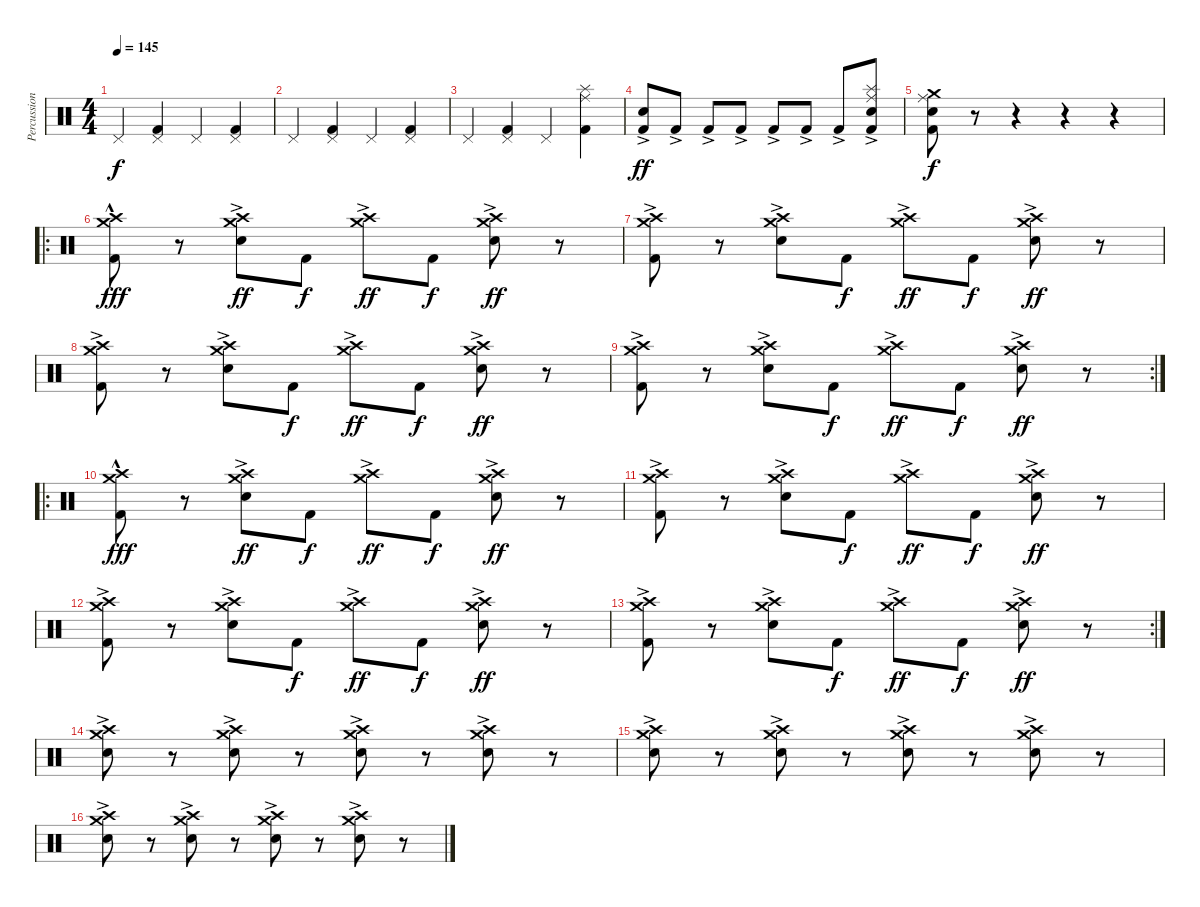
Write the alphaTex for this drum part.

\track ("Percussion" "Percussion") {instrument percussion}
\staff {score}
\articulation defaults
\ts (4 4)
\tempo 145
\clef neutral
\ks c "Pedal Hi-Hat (hit)".4{dy f}
("Pedal Hi-Hat (hit)" "Kick (hit) 2").4 "Pedal Hi-Hat (hit)".4 ("Pedal Hi-Hat (hit)" "Kick (hit) 2").4 |
"Pedal Hi-Hat (hit)".4 ("Pedal Hi-Hat (hit)" "Kick (hit) 2").4 "Pedal Hi-Hat (hit)".4 ("Pedal Hi-Hat (hit)" "Kick (hit) 2").4 |
"Pedal Hi-Hat (hit)".4 ("Pedal Hi-Hat (hit)" "Kick (hit) 2").4 "Pedal Hi-Hat (hit)".4 ("Ride (middle)" "Splash (hit)" "Kick (hit) 2").4 |
("Electric Snare (hit)"{ac} "Kick (hit) 2"{ac}).8{dy ff} "Kick (hit) 2"{ac}.8 "Kick (hit) 2"{ac}.8 "Kick (hit) 2"{ac}.8 "Kick (hit) 2"{ac}.8 "Kick (hit) 2"{ac}.8 "Kick (hit) 2"{ac}.8 ("Ride (middle)" "Splash (hit)" "Electric Snare (hit)"{ac} "Kick (hit) 2"{ac}).8 |
("Ride (middle)" "Crash medium (hit)" "Electric Snare (hit)" "Kick (hit) 2").8{dy f} r.8 r.4 r.4 r.4 |
\ro
("Crash high (hit)"{hac} "Crash medium (hit)"{hac} "Kick (hit) 2"{hac}).8{dy fff} r.8 ("Crash high (hit)"{ac} "Crash medium (hit)"{ac} "Electric Snare (hit)").8{dy ff} "Kick (hit) 2".8{dy f} ("Crash high (hit)"{ac} "Crash medium (hit)"{ac}).8{dy ff} "Kick (hit) 2".8{dy f} ("Crash high (hit)"{ac} "Crash medium (hit)"{ac} "Electric Snare (hit)").8{dy ff} r.8 |
("Crash high (hit)"{ac} "Crash medium (hit)"{ac} "Kick (hit) 2").8 r.8 ("Crash high (hit)"{ac} "Crash medium (hit)"{ac} "Electric Snare (hit)").8 "Kick (hit) 2".8{dy f} ("Crash high (hit)"{ac} "Crash medium (hit)"{ac}).8{dy ff} "Kick (hit) 2".8{dy f} ("Crash high (hit)"{ac} "Crash medium (hit)"{ac} "Electric Snare (hit)").8{dy ff} r.8 |
("Crash high (hit)"{ac} "Crash medium (hit)"{ac} "Kick (hit) 2").8 r.8 ("Crash high (hit)"{ac} "Crash medium (hit)"{ac} "Electric Snare (hit)").8 "Kick (hit) 2".8{dy f} ("Crash high (hit)"{ac} "Crash medium (hit)"{ac}).8{dy ff} "Kick (hit) 2".8{dy f} ("Crash high (hit)"{ac} "Crash medium (hit)"{ac} "Electric Snare (hit)").8{dy ff} r.8 |
\rc 2
("Crash high (hit)"{ac} "Crash medium (hit)"{ac} "Kick (hit) 2").8 r.8 ("Crash high (hit)"{ac} "Crash medium (hit)"{ac} "Electric Snare (hit)").8 "Kick (hit) 2".8{dy f} ("Crash high (hit)"{ac} "Crash medium (hit)"{ac}).8{dy ff} "Kick (hit) 2".8{dy f} ("Crash high (hit)"{ac} "Crash medium (hit)"{ac} "Electric Snare (hit)").8{dy ff} r.8 |
\ro
("Crash high (hit)"{hac} "Crash medium (hit)"{hac} "Kick (hit) 2"{hac}).8{dy fff} r.8 ("Crash high (hit)"{ac} "Crash medium (hit)"{ac} "Electric Snare (hit)").8{dy ff} "Kick (hit) 2".8{dy f} ("Crash high (hit)"{ac} "Crash medium (hit)"{ac}).8{dy ff} "Kick (hit) 2".8{dy f} ("Crash high (hit)"{ac} "Crash medium (hit)"{ac} "Electric Snare (hit)").8{dy ff} r.8 |
("Crash high (hit)"{ac} "Crash medium (hit)"{ac} "Kick (hit) 2").8 r.8 ("Crash high (hit)"{ac} "Crash medium (hit)"{ac} "Electric Snare (hit)").8 "Kick (hit) 2".8{dy f} ("Crash high (hit)"{ac} "Crash medium (hit)"{ac}).8{dy ff} "Kick (hit) 2".8{dy f} ("Crash high (hit)"{ac} "Crash medium (hit)"{ac} "Electric Snare (hit)").8{dy ff} r.8 |
("Crash high (hit)"{ac} "Crash medium (hit)"{ac} "Kick (hit) 2").8 r.8 ("Crash high (hit)"{ac} "Crash medium (hit)"{ac} "Electric Snare (hit)").8 "Kick (hit) 2".8{dy f} ("Crash high (hit)"{ac} "Crash medium (hit)"{ac}).8{dy ff} "Kick (hit) 2".8{dy f} ("Crash high (hit)"{ac} "Crash medium (hit)"{ac} "Electric Snare (hit)").8{dy ff} r.8 |
\rc 2
("Crash high (hit)"{ac} "Crash medium (hit)"{ac} "Kick (hit) 2").8 r.8 ("Crash high (hit)"{ac} "Crash medium (hit)"{ac} "Electric Snare (hit)").8 "Kick (hit) 2".8{dy f} ("Crash high (hit)"{ac} "Crash medium (hit)"{ac}).8{dy ff} "Kick (hit) 2".8{dy f} ("Crash high (hit)"{ac} "Crash medium (hit)"{ac} "Electric Snare (hit)").8{dy ff} r.8 |
("Crash high (hit)"{ac} "Crash medium (hit)"{ac} "Electric Snare (hit)").8 r.8 ("Crash high (hit)"{ac} "Crash medium (hit)"{ac} "Electric Snare (hit)").8 r.8 ("Crash high (hit)"{ac} "Crash medium (hit)"{ac} "Electric Snare (hit)").8 r.8 ("Crash high (hit)"{ac} "Crash medium (hit)"{ac} "Electric Snare (hit)").8 r.8 |
("Crash high (hit)"{ac} "Crash medium (hit)"{ac} "Electric Snare (hit)").8 r.8 ("Crash high (hit)"{ac} "Crash medium (hit)"{ac} "Electric Snare (hit)").8 r.8 ("Crash high (hit)"{ac} "Crash medium (hit)"{ac} "Electric Snare (hit)").8 r.8 ("Crash high (hit)"{ac} "Crash medium (hit)"{ac} "Electric Snare (hit)").8 r.8 |
("Crash high (hit)"{ac} "Crash medium (hit)"{ac} "Electric Snare (hit)").8 r.8 ("Crash high (hit)"{ac} "Crash medium (hit)"{ac} "Electric Snare (hit)").8 r.8 ("Crash high (hit)"{ac} "Crash medium (hit)"{ac} "Electric Snare (hit)").8 r.8 ("Crash high (hit)"{ac} "Crash medium (hit)"{ac} "Electric Snare (hit)").8 r.8
